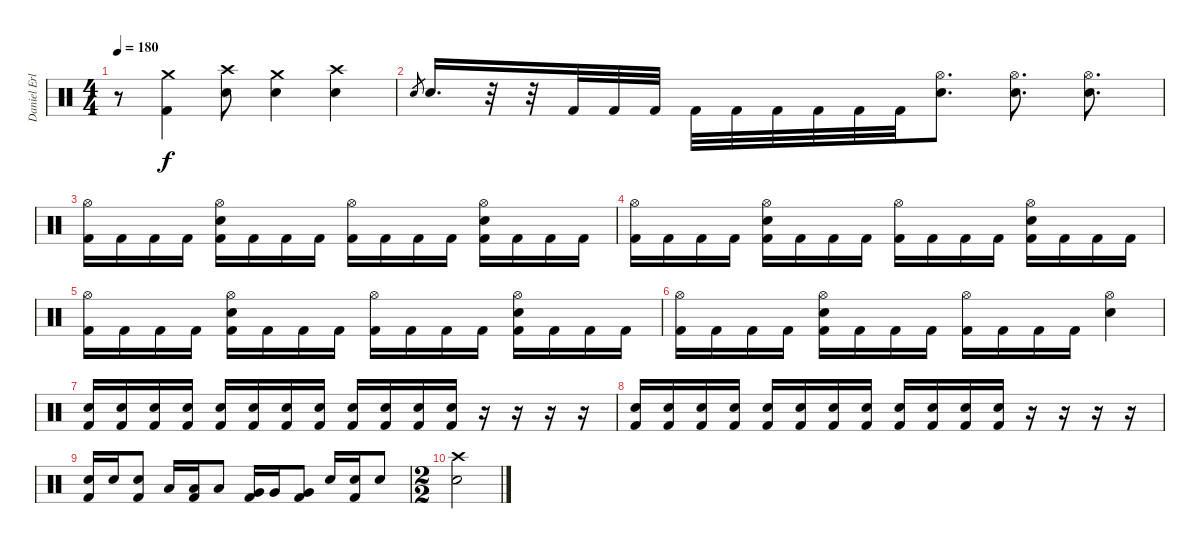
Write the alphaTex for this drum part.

\track ("Daniel Erlandson" "Daniel Erl") {instrument percussion}
\staff {score}
\articulation defaults
\ts (4 4)
\tempo 180
\clef neutral
\ks c
r.8{dy f} ("Crash medium (hit)" "Kick (hit) 2").4 ("Crash high (hit)" "Electric Snare (hit)").8 ("Crash medium (hit)" "Electric Snare (hit)").4 ("Crash high (hit)" "Electric Snare (hit)").4 |
"Electric Snare (hit)".8{gr} "Electric Snare (hit)".16{d} r.32 r.32 "Kick (hit) 2".32 "Kick (hit) 2".32 "Kick (hit) 2".32 "Kick (hit) 2".32 "Kick (hit) 2".32 "Kick (hit) 2".32 "Kick (hit) 2".32 "Kick (hit) 2".32 "Kick (hit) 2".32 ("Hi-Hat (open)" "Electric Snare (hit)").8{d} ("Hi-Hat (open)" "Electric Snare (hit)").8{d} ("Hi-Hat (open)" "Electric Snare (hit)").8{d} |
("Hi-Hat (open)" "Kick (hit) 2").16 "Kick (hit) 2".16 "Kick (hit) 2".16 "Kick (hit) 2".16 ("Hi-Hat (open)" "Electric Snare (hit)" "Kick (hit) 2").16 "Kick (hit) 2".16 "Kick (hit) 2".16 "Kick (hit) 2".16 ("Hi-Hat (open)" "Kick (hit) 2").16 "Kick (hit) 2".16 "Kick (hit) 2".16 "Kick (hit) 2".16 ("Hi-Hat (open)" "Electric Snare (hit)" "Kick (hit) 2").16 "Kick (hit) 2".16 "Kick (hit) 2".16 "Kick (hit) 2".16 |
("Hi-Hat (open)" "Kick (hit) 2").16 "Kick (hit) 2".16 "Kick (hit) 2".16 "Kick (hit) 2".16 ("Hi-Hat (open)" "Electric Snare (hit)" "Kick (hit) 2").16 "Kick (hit) 2".16 "Kick (hit) 2".16 "Kick (hit) 2".16 ("Hi-Hat (open)" "Kick (hit) 2").16 "Kick (hit) 2".16 "Kick (hit) 2".16 "Kick (hit) 2".16 ("Hi-Hat (open)" "Electric Snare (hit)" "Kick (hit) 2").16 "Kick (hit) 2".16 "Kick (hit) 2".16 "Kick (hit) 2".16 |
("Hi-Hat (open)" "Kick (hit) 2").16 "Kick (hit) 2".16 "Kick (hit) 2".16 "Kick (hit) 2".16 ("Hi-Hat (open)" "Electric Snare (hit)" "Kick (hit) 2").16 "Kick (hit) 2".16 "Kick (hit) 2".16 "Kick (hit) 2".16 ("Hi-Hat (open)" "Kick (hit) 2").16 "Kick (hit) 2".16 "Kick (hit) 2".16 "Kick (hit) 2".16 ("Hi-Hat (open)" "Electric Snare (hit)" "Kick (hit) 2").16 "Kick (hit) 2".16 "Kick (hit) 2".16 "Kick (hit) 2".16 |
("Hi-Hat (open)" "Kick (hit) 2").16 "Kick (hit) 2".16 "Kick (hit) 2".16 "Kick (hit) 2".16 ("Hi-Hat (open)" "Electric Snare (hit)" "Kick (hit) 2").16 "Kick (hit) 2".16 "Kick (hit) 2".16 "Kick (hit) 2".16 ("Hi-Hat (open)" "Kick (hit) 2").16 "Kick (hit) 2".16 "Kick (hit) 2".16 "Kick (hit) 2".16 ("Hi-Hat (open)" "Electric Snare (hit)").4 |
("Electric Snare (hit)" "Kick (hit) 2").16 ("Electric Snare (hit)" "Kick (hit) 2").16 ("Electric Snare (hit)" "Kick (hit) 2").16 ("Electric Snare (hit)" "Kick (hit) 2").16 ("Electric Snare (hit)" "Kick (hit) 2").16 ("Electric Snare (hit)" "Kick (hit) 2").16 ("Electric Snare (hit)" "Kick (hit) 2").16 ("Electric Snare (hit)" "Kick (hit) 2").16 ("Electric Snare (hit)" "Kick (hit) 2").16 ("Electric Snare (hit)" "Kick (hit) 2").16 ("Electric Snare (hit)" "Kick (hit) 2").16 ("Electric Snare (hit)" "Kick (hit) 2").16 r.16 r.16 r.16 r.16 |
("Electric Snare (hit)" "Kick (hit) 2").16 ("Electric Snare (hit)" "Kick (hit) 2").16 ("Electric Snare (hit)" "Kick (hit) 2").16 ("Electric Snare (hit)" "Kick (hit) 2").16 ("Electric Snare (hit)" "Kick (hit) 2").16 ("Electric Snare (hit)" "Kick (hit) 2").16 ("Electric Snare (hit)" "Kick (hit) 2").16 ("Electric Snare (hit)" "Kick (hit) 2").16 ("Electric Snare (hit)" "Kick (hit) 2").16 ("Electric Snare (hit)" "Kick (hit) 2").16 ("Electric Snare (hit)" "Kick (hit) 2").16 ("Electric Snare (hit)" "Kick (hit) 2").16 r.16 r.16 r.16 r.16 |
("Electric Snare (hit)" "Kick (hit) 2").16 "Electric Snare (hit)".16 ("Electric Snare (hit)" "Kick (hit) 2").8 "Low Tom (hit)".16 ("Low Tom (hit)" "Kick (hit) 2").16 "Low Tom (hit)".8 ("Very Low Tom (hit)" "Kick (hit) 2").16 "Very Low Tom (hit)".16 ("Very Low Tom (hit)" "Kick (hit) 2").8 "Electric Snare (hit)".16 ("Electric Snare (hit)" "Kick (hit) 2").16 "Electric Snare (hit)".8 |
\ts (2 2)
("Crash high (hit)" "Electric Snare (hit)").2
